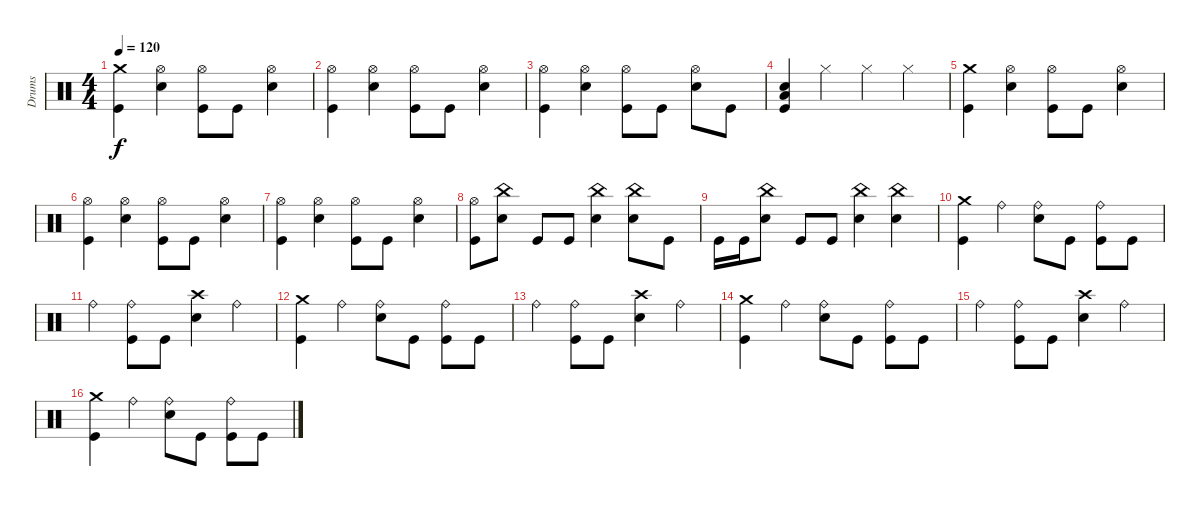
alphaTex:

\track ("Drums" "Drums") {instrument percussion}
\staff {score}
\articulation defaults
\ts (4 4)
\tempo 120
\clef neutral
\ks c
("Crash medium (hit)" "Kick (hit)").4{dy f} ("Hi-Hat (open)" "Snare (hit) 2").4 ("Hi-Hat (open)" "Kick (hit)").8 "Kick (hit)".8 ("Hi-Hat (open)" "Snare (hit) 2").4 |
("Hi-Hat (open)" "Kick (hit)").4 ("Hi-Hat (open)" "Snare (hit) 2").4 ("Hi-Hat (open)" "Kick (hit)").8 "Kick (hit)".8 ("Hi-Hat (open)" "Snare (hit) 2").4 |
("Hi-Hat (open)" "Kick (hit)").4 ("Hi-Hat (open)" "Snare (hit) 2").4 ("Hi-Hat (open)" "Kick (hit)").8 "Kick (hit)".8 ("Hi-Hat (open)" "Snare (hit) 2").8 "Kick (hit)".8 |
("Low Floor Tom (hit)" "Snare (hit) 2" "Kick (hit)").4 "Hi-Hat (closed)".4 "Hi-Hat (closed)".4 "Hi-Hat (closed)".4 |
("Crash medium (hit)" "Kick (hit)").4 ("Hi-Hat (open)" "Snare (hit) 2").4 ("Hi-Hat (open)" "Kick (hit)").8 "Kick (hit)".8 ("Hi-Hat (open)" "Snare (hit) 2").4 |
("Hi-Hat (open)" "Kick (hit)").4 ("Hi-Hat (open)" "Snare (hit) 2").4 ("Hi-Hat (open)" "Kick (hit)").8 "Kick (hit)".8 ("Hi-Hat (open)" "Snare (hit) 2").4 |
("Hi-Hat (open)" "Kick (hit)").4 ("Hi-Hat (open)" "Snare (hit) 2").4 ("Hi-Hat (open)" "Kick (hit)").8 "Kick (hit)".8 ("Hi-Hat (open)" "Snare (hit) 2").4 |
("Hi-Hat (open)" "Kick (hit)").8 ("China (hit)" "Snare (hit) 2").8 "Kick (hit)".8 "Kick (hit)".8 ("China (hit)" "Snare (hit) 2").4 ("China (hit)" "Snare (hit) 2").8 "Kick (hit)".8 |
"Kick (hit)".16 "Kick (hit)".16 ("China (hit)" "Snare (hit) 2").8 "Kick (hit)".8 "Kick (hit)".8 ("China (hit)" "Snare (hit) 2").4 ("China (hit)" "Snare (hit) 2").4 |
("Crash medium (hit)" "Kick (hit)").4 "Ride (bell)".4 ("Ride (bell)" "Snare (hit) 2").8 "Kick (hit)".8 ("Ride (bell)" "Kick (hit)").8 "Kick (hit)".8 |
"Ride (bell)".4 ("Ride (bell)" "Kick (hit)").8 "Kick (hit)".8 ("Crash high (hit)" "Snare (hit) 2").4 "Ride (bell)".4 |
("Crash medium (hit)" "Kick (hit)").4 "Ride (bell)".4 ("Ride (bell)" "Snare (hit) 2").8 "Kick (hit)".8 ("Ride (bell)" "Kick (hit)").8 "Kick (hit)".8 |
"Ride (bell)".4 ("Ride (bell)" "Kick (hit)").8 "Kick (hit)".8 ("Crash high (hit)" "Snare (hit) 2").4 "Ride (bell)".4 |
("Crash medium (hit)" "Kick (hit)").4 "Ride (bell)".4 ("Ride (bell)" "Snare (hit) 2").8 "Kick (hit)".8 ("Ride (bell)" "Kick (hit)").8 "Kick (hit)".8 |
"Ride (bell)".4 ("Ride (bell)" "Kick (hit)").8 "Kick (hit)".8 ("Crash high (hit)" "Snare (hit) 2").4 "Ride (bell)".4 |
("Crash medium (hit)" "Kick (hit)").4 "Ride (bell)".4 ("Ride (bell)" "Snare (hit) 2").8 "Kick (hit)".8 ("Ride (bell)" "Kick (hit)").8 "Kick (hit)".8
